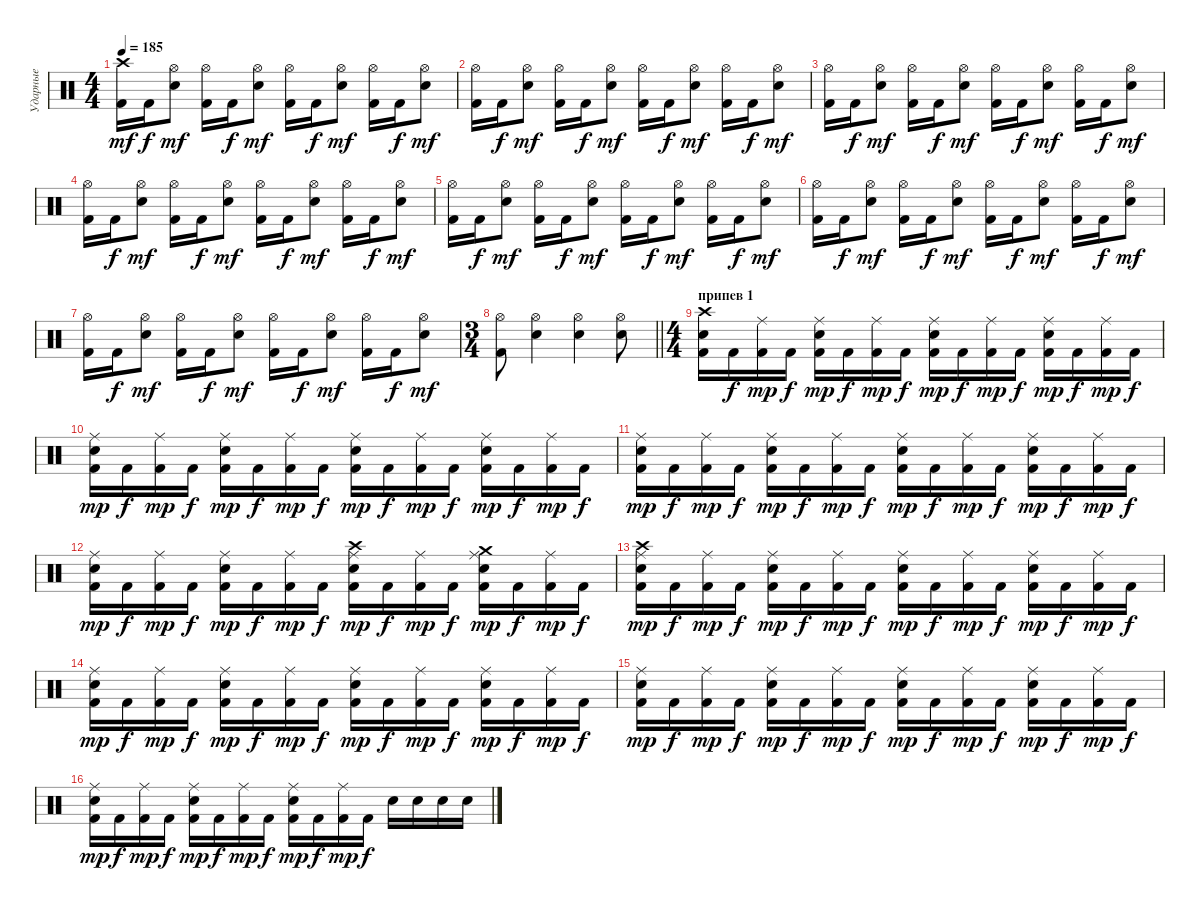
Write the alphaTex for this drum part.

\track ("Ударные" "Ударные") {instrument percussion}
\staff {score}
\articulation defaults
\ts (4 4)
\tempo 185
\clef neutral
\ks c
("Kick (hit) 2" "Crash high (hit)").16{dy mf} "Kick (hit) 2".16{dy f} ("Electric Snare (hit)" "Hi-Hat (open)").8{dy mf} ("Kick (hit) 2" "Hi-Hat (open)").16 "Kick (hit) 2".16{dy f} ("Electric Snare (hit)" "Hi-Hat (open)").8{dy mf} ("Kick (hit) 2" "Hi-Hat (open)").16 "Kick (hit) 2".16{dy f} ("Electric Snare (hit)" "Hi-Hat (open)").8{dy mf} ("Kick (hit) 2" "Hi-Hat (open)").16 "Kick (hit) 2".16{dy f} ("Electric Snare (hit)" "Hi-Hat (open)").8{dy mf} |
("Kick (hit) 2" "Hi-Hat (open)").16 "Kick (hit) 2".16{dy f} ("Electric Snare (hit)" "Hi-Hat (open)").8{dy mf} ("Kick (hit) 2" "Hi-Hat (open)").16 "Kick (hit) 2".16{dy f} ("Electric Snare (hit)" "Hi-Hat (open)").8{dy mf} ("Kick (hit) 2" "Hi-Hat (open)").16 "Kick (hit) 2".16{dy f} ("Electric Snare (hit)" "Hi-Hat (open)").8{dy mf} ("Kick (hit) 2" "Hi-Hat (open)").16 "Kick (hit) 2".16{dy f} ("Electric Snare (hit)" "Hi-Hat (open)").8{dy mf} |
("Kick (hit) 2" "Hi-Hat (open)").16 "Kick (hit) 2".16{dy f} ("Electric Snare (hit)" "Hi-Hat (open)").8{dy mf} ("Kick (hit) 2" "Hi-Hat (open)").16 "Kick (hit) 2".16{dy f} ("Electric Snare (hit)" "Hi-Hat (open)").8{dy mf} ("Kick (hit) 2" "Hi-Hat (open)").16 "Kick (hit) 2".16{dy f} ("Electric Snare (hit)" "Hi-Hat (open)").8{dy mf} ("Kick (hit) 2" "Hi-Hat (open)").16 "Kick (hit) 2".16{dy f} ("Electric Snare (hit)" "Hi-Hat (open)").8{dy mf} |
("Kick (hit) 2" "Hi-Hat (open)").16 "Kick (hit) 2".16{dy f} ("Electric Snare (hit)" "Hi-Hat (open)").8{dy mf} ("Kick (hit) 2" "Hi-Hat (open)").16 "Kick (hit) 2".16{dy f} ("Electric Snare (hit)" "Hi-Hat (open)").8{dy mf} ("Kick (hit) 2" "Hi-Hat (open)").16 "Kick (hit) 2".16{dy f} ("Electric Snare (hit)" "Hi-Hat (open)").8{dy mf} ("Kick (hit) 2" "Hi-Hat (open)").16 "Kick (hit) 2".16{dy f} ("Electric Snare (hit)" "Hi-Hat (open)").8{dy mf} |
("Kick (hit) 2" "Hi-Hat (open)").16 "Kick (hit) 2".16{dy f} ("Electric Snare (hit)" "Hi-Hat (open)").8{dy mf} ("Kick (hit) 2" "Hi-Hat (open)").16 "Kick (hit) 2".16{dy f} ("Electric Snare (hit)" "Hi-Hat (open)").8{dy mf} ("Kick (hit) 2" "Hi-Hat (open)").16 "Kick (hit) 2".16{dy f} ("Electric Snare (hit)" "Hi-Hat (open)").8{dy mf} ("Kick (hit) 2" "Hi-Hat (open)").16 "Kick (hit) 2".16{dy f} ("Electric Snare (hit)" "Hi-Hat (open)").8{dy mf} |
("Kick (hit) 2" "Hi-Hat (open)").16 "Kick (hit) 2".16{dy f} ("Electric Snare (hit)" "Hi-Hat (open)").8{dy mf} ("Kick (hit) 2" "Hi-Hat (open)").16 "Kick (hit) 2".16{dy f} ("Electric Snare (hit)" "Hi-Hat (open)").8{dy mf} ("Kick (hit) 2" "Hi-Hat (open)").16 "Kick (hit) 2".16{dy f} ("Electric Snare (hit)" "Hi-Hat (open)").8{dy mf} ("Kick (hit) 2" "Hi-Hat (open)").16 "Kick (hit) 2".16{dy f} ("Electric Snare (hit)" "Hi-Hat (open)").8{dy mf} |
("Kick (hit) 2" "Hi-Hat (open)").16 "Kick (hit) 2".16{dy f} ("Electric Snare (hit)" "Hi-Hat (open)").8{dy mf} ("Kick (hit) 2" "Hi-Hat (open)").16 "Kick (hit) 2".16{dy f} ("Electric Snare (hit)" "Hi-Hat (open)").8{dy mf} ("Kick (hit) 2" "Hi-Hat (open)").16 "Kick (hit) 2".16{dy f} ("Electric Snare (hit)" "Hi-Hat (open)").8{dy mf} ("Kick (hit) 2" "Hi-Hat (open)").16 "Kick (hit) 2".16{dy f} ("Electric Snare (hit)" "Hi-Hat (open)").8{dy mf} |
\ts (3 4)
\barLineRight lightlight
("Kick (hit) 2" "Hi-Hat (open)").8 ("Electric Snare (hit)" "Hi-Hat (open)").4 ("Electric Snare (hit)" "Hi-Hat (open)").4 ("Electric Snare (hit)" "Hi-Hat (open)").8 |
\ts (4 4)
\section ("" "припев 1")
("Kick (hit) 2" "Electric Snare (hit)" "Crash high (hit)").16 "Kick (hit) 2".16{dy f} ("Kick (hit) 2" "Ride (middle)").16{dy mp} "Kick (hit) 2".16{dy f} ("Kick (hit) 2" "Electric Snare (hit)" "Ride (middle)").16{dy mp} "Kick (hit) 2".16{dy f} ("Kick (hit) 2" "Ride (middle)").16{dy mp} "Kick (hit) 2".16{dy f} ("Kick (hit) 2" "Electric Snare (hit)" "Ride (middle)").16{dy mp} "Kick (hit) 2".16{dy f} ("Kick (hit) 2" "Ride (middle)").16{dy mp} "Kick (hit) 2".16{dy f} ("Kick (hit) 2" "Electric Snare (hit)" "Ride (middle)").16{dy mp} "Kick (hit) 2".16{dy f} ("Kick (hit) 2" "Ride (middle)").16{dy mp} "Kick (hit) 2".16{dy f} |
("Kick (hit) 2" "Electric Snare (hit)" "Ride (middle)").16{dy mp} "Kick (hit) 2".16{dy f} ("Kick (hit) 2" "Ride (middle)").16{dy mp} "Kick (hit) 2".16{dy f} ("Kick (hit) 2" "Electric Snare (hit)" "Ride (middle)").16{dy mp} "Kick (hit) 2".16{dy f} ("Kick (hit) 2" "Ride (middle)").16{dy mp} "Kick (hit) 2".16{dy f} ("Kick (hit) 2" "Electric Snare (hit)" "Ride (middle)").16{dy mp} "Kick (hit) 2".16{dy f} ("Kick (hit) 2" "Ride (middle)").16{dy mp} "Kick (hit) 2".16{dy f} ("Kick (hit) 2" "Electric Snare (hit)" "Ride (middle)").16{dy mp} "Kick (hit) 2".16{dy f} ("Kick (hit) 2" "Ride (middle)").16{dy mp} "Kick (hit) 2".16{dy f} |
("Kick (hit) 2" "Electric Snare (hit)" "Ride (middle)").16{dy mp} "Kick (hit) 2".16{dy f} ("Kick (hit) 2" "Ride (middle)").16{dy mp} "Kick (hit) 2".16{dy f} ("Kick (hit) 2" "Electric Snare (hit)" "Ride (middle)").16{dy mp} "Kick (hit) 2".16{dy f} ("Kick (hit) 2" "Ride (middle)").16{dy mp} "Kick (hit) 2".16{dy f} ("Kick (hit) 2" "Electric Snare (hit)" "Ride (middle)").16{dy mp} "Kick (hit) 2".16{dy f} ("Kick (hit) 2" "Ride (middle)").16{dy mp} "Kick (hit) 2".16{dy f} ("Kick (hit) 2" "Electric Snare (hit)" "Ride (middle)").16{dy mp} "Kick (hit) 2".16{dy f} ("Kick (hit) 2" "Ride (middle)").16{dy mp} "Kick (hit) 2".16{dy f} |
("Kick (hit) 2" "Electric Snare (hit)" "Ride (middle)").16{dy mp} "Kick (hit) 2".16{dy f} ("Kick (hit) 2" "Ride (middle)").16{dy mp} "Kick (hit) 2".16{dy f} ("Kick (hit) 2" "Electric Snare (hit)" "Ride (middle)").16{dy mp} "Kick (hit) 2".16{dy f} ("Kick (hit) 2" "Ride (middle)").16{dy mp} "Kick (hit) 2".16{dy f} ("Kick (hit) 2" "Electric Snare (hit)" "Ride (middle)" "Crash high (hit)").16{dy mp} "Kick (hit) 2".16{dy f} ("Kick (hit) 2" "Ride (middle)").16{dy mp} "Kick (hit) 2".16{dy f} ("Kick (hit) 2" "Electric Snare (hit)" "Ride (middle)" "Crash medium (hit)").16{dy mp} "Kick (hit) 2".16{dy f} ("Kick (hit) 2" "Ride (middle)").16{dy mp} "Kick (hit) 2".16{dy f} |
("Kick (hit) 2" "Electric Snare (hit)" "Ride (middle)" "Crash high (hit)").16{dy mp} "Kick (hit) 2".16{dy f} ("Kick (hit) 2" "Ride (middle)").16{dy mp} "Kick (hit) 2".16{dy f} ("Kick (hit) 2" "Electric Snare (hit)" "Ride (middle)").16{dy mp} "Kick (hit) 2".16{dy f} ("Kick (hit) 2" "Ride (middle)").16{dy mp} "Kick (hit) 2".16{dy f} ("Kick (hit) 2" "Electric Snare (hit)" "Ride (middle)").16{dy mp} "Kick (hit) 2".16{dy f} ("Kick (hit) 2" "Ride (middle)").16{dy mp} "Kick (hit) 2".16{dy f} ("Kick (hit) 2" "Electric Snare (hit)" "Ride (middle)").16{dy mp} "Kick (hit) 2".16{dy f} ("Kick (hit) 2" "Ride (middle)").16{dy mp} "Kick (hit) 2".16{dy f} |
("Kick (hit) 2" "Electric Snare (hit)" "Ride (middle)").16{dy mp} "Kick (hit) 2".16{dy f} ("Kick (hit) 2" "Ride (middle)").16{dy mp} "Kick (hit) 2".16{dy f} ("Kick (hit) 2" "Electric Snare (hit)" "Ride (middle)").16{dy mp} "Kick (hit) 2".16{dy f} ("Kick (hit) 2" "Ride (middle)").16{dy mp} "Kick (hit) 2".16{dy f} ("Kick (hit) 2" "Electric Snare (hit)" "Ride (middle)").16{dy mp} "Kick (hit) 2".16{dy f} ("Kick (hit) 2" "Ride (middle)").16{dy mp} "Kick (hit) 2".16{dy f} ("Kick (hit) 2" "Electric Snare (hit)" "Ride (middle)").16{dy mp} "Kick (hit) 2".16{dy f} ("Kick (hit) 2" "Ride (middle)").16{dy mp} "Kick (hit) 2".16{dy f} |
("Kick (hit) 2" "Electric Snare (hit)" "Ride (middle)").16{dy mp} "Kick (hit) 2".16{dy f} ("Kick (hit) 2" "Ride (middle)").16{dy mp} "Kick (hit) 2".16{dy f} ("Kick (hit) 2" "Electric Snare (hit)" "Ride (middle)").16{dy mp} "Kick (hit) 2".16{dy f} ("Kick (hit) 2" "Ride (middle)").16{dy mp} "Kick (hit) 2".16{dy f} ("Kick (hit) 2" "Electric Snare (hit)" "Ride (middle)").16{dy mp} "Kick (hit) 2".16{dy f} ("Kick (hit) 2" "Ride (middle)").16{dy mp} "Kick (hit) 2".16{dy f} ("Kick (hit) 2" "Electric Snare (hit)" "Ride (middle)").16{dy mp} "Kick (hit) 2".16{dy f} ("Kick (hit) 2" "Ride (middle)").16{dy mp} "Kick (hit) 2".16{dy f} |
("Kick (hit) 2" "Electric Snare (hit)" "Ride (middle)").16{dy mp} "Kick (hit) 2".16{dy f} ("Kick (hit) 2" "Ride (middle)").16{dy mp} "Kick (hit) 2".16{dy f} ("Kick (hit) 2" "Electric Snare (hit)" "Ride (middle)").16{dy mp} "Kick (hit) 2".16{dy f} ("Kick (hit) 2" "Ride (middle)").16{dy mp} "Kick (hit) 2".16{dy f} ("Kick (hit) 2" "Electric Snare (hit)" "Ride (middle)").16{dy mp} "Kick (hit) 2".16{dy f} ("Kick (hit) 2" "Ride (middle)").16{dy mp} "Kick (hit) 2".16{dy f} "Electric Snare (hit)".16 "Electric Snare (hit)".16 "Electric Snare (hit)".16 "Electric Snare (hit)".16
